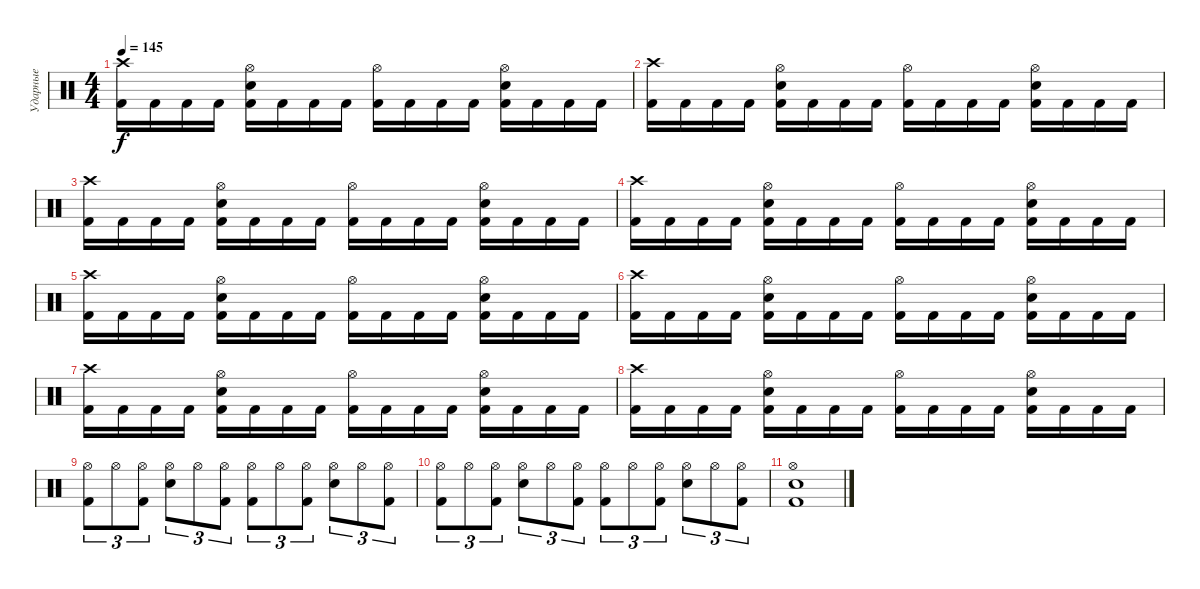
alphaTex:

\track ("Ударные" "Ударные") {instrument percussion}
\staff {score}
\articulation defaults
\ts (4 4)
\tempo 145
\clef neutral
\ks c
("Kick (hit) 2" "Crash high (hit)").16{dy f} "Kick (hit) 2".16 "Kick (hit) 2".16 "Kick (hit) 2".16 ("Kick (hit) 2" "Snare (hit) 2" "Hi-Hat (open)").16 "Kick (hit) 2".16 "Kick (hit) 2".16 "Kick (hit) 2".16 ("Kick (hit) 2" "Hi-Hat (open)").16 "Kick (hit) 2".16 "Kick (hit) 2".16 "Kick (hit) 2".16 ("Kick (hit) 2" "Snare (hit) 2" "Hi-Hat (open)").16 "Kick (hit) 2".16 "Kick (hit) 2".16 "Kick (hit) 2".16 |
("Kick (hit) 2" "Crash high (hit)").16 "Kick (hit) 2".16 "Kick (hit) 2".16 "Kick (hit) 2".16 ("Kick (hit) 2" "Snare (hit) 2" "Hi-Hat (open)").16 "Kick (hit) 2".16 "Kick (hit) 2".16 "Kick (hit) 2".16 ("Kick (hit) 2" "Hi-Hat (open)").16 "Kick (hit) 2".16 "Kick (hit) 2".16 "Kick (hit) 2".16 ("Kick (hit) 2" "Snare (hit) 2" "Hi-Hat (open)").16 "Kick (hit) 2".16 "Kick (hit) 2".16 "Kick (hit) 2".16 |
("Kick (hit) 2" "Crash high (hit)").16 "Kick (hit) 2".16 "Kick (hit) 2".16 "Kick (hit) 2".16 ("Kick (hit) 2" "Snare (hit) 2" "Hi-Hat (open)").16 "Kick (hit) 2".16 "Kick (hit) 2".16 "Kick (hit) 2".16 ("Kick (hit) 2" "Hi-Hat (open)").16 "Kick (hit) 2".16 "Kick (hit) 2".16 "Kick (hit) 2".16 ("Kick (hit) 2" "Snare (hit) 2" "Hi-Hat (open)").16 "Kick (hit) 2".16 "Kick (hit) 2".16 "Kick (hit) 2".16 |
("Kick (hit) 2" "Crash high (hit)").16 "Kick (hit) 2".16 "Kick (hit) 2".16 "Kick (hit) 2".16 ("Kick (hit) 2" "Snare (hit) 2" "Hi-Hat (open)").16 "Kick (hit) 2".16 "Kick (hit) 2".16 "Kick (hit) 2".16 ("Kick (hit) 2" "Hi-Hat (open)").16 "Kick (hit) 2".16 "Kick (hit) 2".16 "Kick (hit) 2".16 ("Kick (hit) 2" "Snare (hit) 2" "Hi-Hat (open)").16 "Kick (hit) 2".16 "Kick (hit) 2".16 "Kick (hit) 2".16 |
("Kick (hit) 2" "Crash high (hit)").16 "Kick (hit) 2".16 "Kick (hit) 2".16 "Kick (hit) 2".16 ("Kick (hit) 2" "Snare (hit) 2" "Hi-Hat (open)").16 "Kick (hit) 2".16 "Kick (hit) 2".16 "Kick (hit) 2".16 ("Kick (hit) 2" "Hi-Hat (open)").16 "Kick (hit) 2".16 "Kick (hit) 2".16 "Kick (hit) 2".16 ("Kick (hit) 2" "Snare (hit) 2" "Hi-Hat (open)").16 "Kick (hit) 2".16 "Kick (hit) 2".16 "Kick (hit) 2".16 |
("Kick (hit) 2" "Crash high (hit)").16 "Kick (hit) 2".16 "Kick (hit) 2".16 "Kick (hit) 2".16 ("Kick (hit) 2" "Snare (hit) 2" "Hi-Hat (open)").16 "Kick (hit) 2".16 "Kick (hit) 2".16 "Kick (hit) 2".16 ("Kick (hit) 2" "Hi-Hat (open)").16 "Kick (hit) 2".16 "Kick (hit) 2".16 "Kick (hit) 2".16 ("Kick (hit) 2" "Snare (hit) 2" "Hi-Hat (open)").16 "Kick (hit) 2".16 "Kick (hit) 2".16 "Kick (hit) 2".16 |
("Kick (hit) 2" "Crash high (hit)").16 "Kick (hit) 2".16 "Kick (hit) 2".16 "Kick (hit) 2".16 ("Kick (hit) 2" "Snare (hit) 2" "Hi-Hat (open)").16 "Kick (hit) 2".16 "Kick (hit) 2".16 "Kick (hit) 2".16 ("Kick (hit) 2" "Hi-Hat (open)").16 "Kick (hit) 2".16 "Kick (hit) 2".16 "Kick (hit) 2".16 ("Kick (hit) 2" "Snare (hit) 2" "Hi-Hat (open)").16 "Kick (hit) 2".16 "Kick (hit) 2".16 "Kick (hit) 2".16 |
("Kick (hit) 2" "Crash high (hit)").16 "Kick (hit) 2".16 "Kick (hit) 2".16 "Kick (hit) 2".16 ("Kick (hit) 2" "Snare (hit) 2" "Hi-Hat (open)").16 "Kick (hit) 2".16 "Kick (hit) 2".16 "Kick (hit) 2".16 ("Kick (hit) 2" "Hi-Hat (open)").16 "Kick (hit) 2".16 "Kick (hit) 2".16 "Kick (hit) 2".16 ("Kick (hit) 2" "Snare (hit) 2" "Hi-Hat (open)").16 "Kick (hit) 2".16 "Kick (hit) 2".16 "Kick (hit) 2".16 |
("Kick (hit) 2" "Hi-Hat (open)").8{tu (3 2)} "Hi-Hat (open)".8{tu (3 2)} ("Kick (hit) 2" "Hi-Hat (open)").8{tu (3 2)} ("Snare (hit) 2" "Hi-Hat (open)").8{tu (3 2)} "Hi-Hat (open)".8{tu (3 2)} ("Kick (hit) 2" "Hi-Hat (open)").8{tu (3 2)} ("Kick (hit) 2" "Hi-Hat (open)").8{tu (3 2)} "Hi-Hat (open)".8{tu (3 2)} ("Kick (hit) 2" "Hi-Hat (open)").8{tu (3 2)} ("Snare (hit) 2" "Hi-Hat (open)").8{tu (3 2)} "Hi-Hat (open)".8{tu (3 2)} ("Kick (hit) 2" "Hi-Hat (open)").8{tu (3 2)} |
("Kick (hit) 2" "Hi-Hat (open)").8{tu (3 2)} "Hi-Hat (open)".8{tu (3 2)} ("Kick (hit) 2" "Hi-Hat (open)").8{tu (3 2)} ("Snare (hit) 2" "Hi-Hat (open)").8{tu (3 2)} "Hi-Hat (open)".8{tu (3 2)} ("Kick (hit) 2" "Hi-Hat (open)").8{tu (3 2)} ("Kick (hit) 2" "Hi-Hat (open)").8{tu (3 2)} "Hi-Hat (open)".8{tu (3 2)} ("Kick (hit) 2" "Hi-Hat (open)").8{tu (3 2)} ("Snare (hit) 2" "Hi-Hat (open)").8{tu (3 2)} "Hi-Hat (open)".8{tu (3 2)} ("Kick (hit) 2" "Hi-Hat (open)").8{tu (3 2)} |
("Kick (hit) 2" "Snare (hit) 2" "Hi-Hat (open)").1
